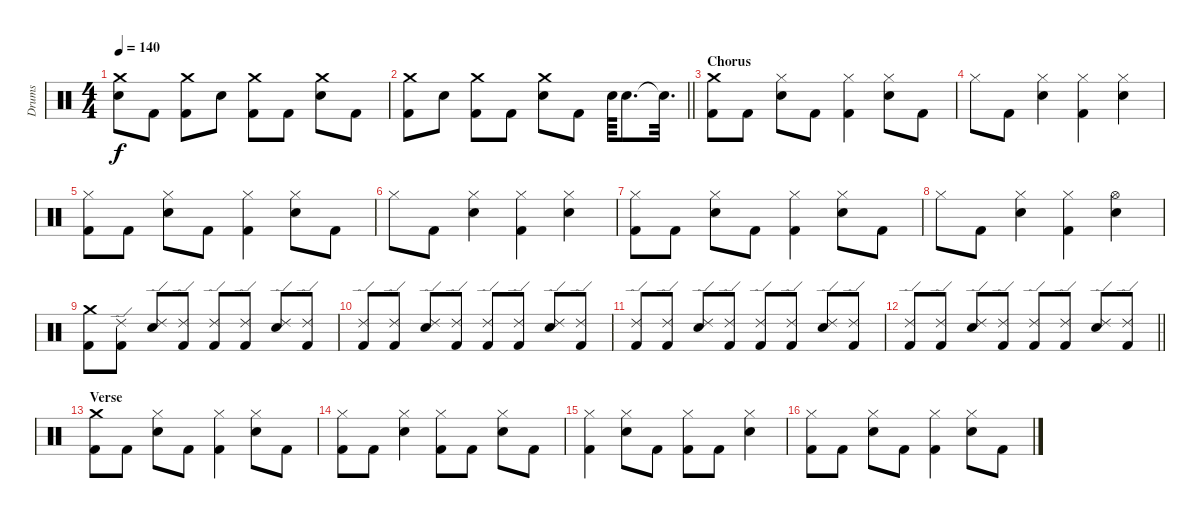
\track ("Drums" "Drums") {instrument percussion}
\staff {score}
\articulation defaults
\ts (4 4)
\tempo 140
\clef neutral
\ks c
("Crash medium (hit)" "Electric Snare (hit)").8{dy f} "Kick (hit) 2".8 ("Crash medium (hit)" "Kick (hit) 2").8 "Electric Snare (hit)".8 ("Crash medium (hit)" "Kick (hit) 2").8 "Kick (hit) 2".8 ("Crash medium (hit)" "Electric Snare (hit)").8 "Kick (hit) 2".8 |
\barLineRight lightlight
("Crash medium (hit)" "Kick (hit) 2").8 "Electric Snare (hit)".8 ("Crash medium (hit)" "Kick (hit) 2").8 "Kick (hit) 2".8 ("Crash medium (hit)" "Electric Snare (hit)").8 "Kick (hit) 2".8 "Electric Snare (hit)".64 "Electric Snare (hit)".8{d} "Electric Snare (hit)"{t}.32{d} |
\section ("" "Chorus")
("Crash medium (hit)" "Kick (hit) 2").8 "Kick (hit) 2".8 ("Hi-Hat (closed)" "Electric Snare (hit)").8 "Kick (hit) 2".8 ("Hi-Hat (closed)" "Kick (hit) 2").4 ("Hi-Hat (closed)" "Electric Snare (hit)").8 "Kick (hit) 2".8 |
"Hi-Hat (closed)".8 "Kick (hit) 2".8 ("Hi-Hat (closed)" "Electric Snare (hit)").4 ("Hi-Hat (closed)" "Kick (hit) 2").4 ("Hi-Hat (closed)" "Electric Snare (hit)").4 |
("Hi-Hat (closed)" "Kick (hit) 2").8 "Kick (hit) 2".8 ("Hi-Hat (closed)" "Electric Snare (hit)").8 "Kick (hit) 2".8 ("Hi-Hat (closed)" "Kick (hit) 2").4 ("Hi-Hat (closed)" "Electric Snare (hit)").8 "Kick (hit) 2".8 |
"Hi-Hat (closed)".8 "Kick (hit) 2".8 ("Hi-Hat (closed)" "Electric Snare (hit)").4 ("Hi-Hat (closed)" "Kick (hit) 2").4 ("Hi-Hat (closed)" "Electric Snare (hit)").4 |
("Hi-Hat (closed)" "Kick (hit) 2").8 "Kick (hit) 2".8 ("Hi-Hat (closed)" "Electric Snare (hit)").8 "Kick (hit) 2".8 ("Hi-Hat (closed)" "Kick (hit) 2").4 ("Hi-Hat (closed)" "Electric Snare (hit)").8 "Kick (hit) 2".8 |
"Hi-Hat (closed)".8 "Kick (hit) 2".8 ("Hi-Hat (closed)" "Electric Snare (hit)").4 ("Hi-Hat (closed)" "Kick (hit) 2").4 ("Hi-Hat (open)" "Electric Snare (hit)").4 |
("Crash medium (hit)" "Kick (hit) 2").8 ("Ride (edge) 2" "Kick (hit) 2").8 ("Ride (edge) 2" "Electric Snare (hit)").8 ("Ride (edge) 2" "Kick (hit) 2").8 ("Ride (edge) 2" "Kick (hit) 2").8 ("Ride (edge) 2" "Kick (hit) 2").8 ("Ride (edge) 2" "Electric Snare (hit)").8 ("Ride (edge) 2" "Kick (hit) 2").8 |
("Ride (edge) 2" "Kick (hit) 2").8 ("Ride (edge) 2" "Kick (hit) 2").8 ("Ride (edge) 2" "Electric Snare (hit)").8 ("Ride (edge) 2" "Kick (hit) 2").8 ("Ride (edge) 2" "Kick (hit) 2").8 ("Ride (edge) 2" "Kick (hit) 2").8 ("Ride (edge) 2" "Electric Snare (hit)").8 ("Ride (edge) 2" "Kick (hit) 2").8 |
("Ride (edge) 2" "Kick (hit) 2").8 ("Ride (edge) 2" "Kick (hit) 2").8 ("Ride (edge) 2" "Electric Snare (hit)").8 ("Ride (edge) 2" "Kick (hit) 2").8 ("Ride (edge) 2" "Kick (hit) 2").8 ("Ride (edge) 2" "Kick (hit) 2").8 ("Ride (edge) 2" "Electric Snare (hit)").8 ("Ride (edge) 2" "Kick (hit) 2").8 |
\barLineRight lightlight
("Ride (edge) 2" "Kick (hit) 2").8 ("Ride (edge) 2" "Kick (hit) 2").8 ("Ride (edge) 2" "Electric Snare (hit)").8 ("Ride (edge) 2" "Kick (hit) 2").8 ("Ride (edge) 2" "Kick (hit) 2").8 ("Ride (edge) 2" "Kick (hit) 2").8 ("Ride (edge) 2" "Electric Snare (hit)").8 ("Ride (edge) 2" "Kick (hit) 2").8 |
\section ("" "Verse")
("Crash medium (hit)" "Kick (hit) 2").8 "Kick (hit) 2".8 ("Hi-Hat (closed)" "Electric Snare (hit)").8 "Kick (hit) 2".8 ("Hi-Hat (closed)" "Kick (hit) 2").4 ("Hi-Hat (closed)" "Electric Snare (hit)").8 "Kick (hit) 2".8 |
("Hi-Hat (closed)" "Kick (hit) 2").8 "Kick (hit) 2".8 ("Hi-Hat (closed)" "Electric Snare (hit)").4 ("Hi-Hat (closed)" "Kick (hit) 2").8 "Kick (hit) 2".8 ("Hi-Hat (closed)" "Electric Snare (hit)").8 "Kick (hit) 2".8 |
("Hi-Hat (closed)" "Kick (hit) 2").4 ("Hi-Hat (closed)" "Electric Snare (hit)").8 "Kick (hit) 2".8 ("Hi-Hat (closed)" "Kick (hit) 2").8 "Kick (hit) 2".8 ("Hi-Hat (closed)" "Electric Snare (hit)").4 |
("Hi-Hat (closed)" "Kick (hit) 2").8 "Kick (hit) 2".8 ("Hi-Hat (closed)" "Electric Snare (hit)").8 "Kick (hit) 2".8 ("Hi-Hat (closed)" "Kick (hit) 2").4 ("Hi-Hat (closed)" "Electric Snare (hit)").8 "Kick (hit) 2".8
